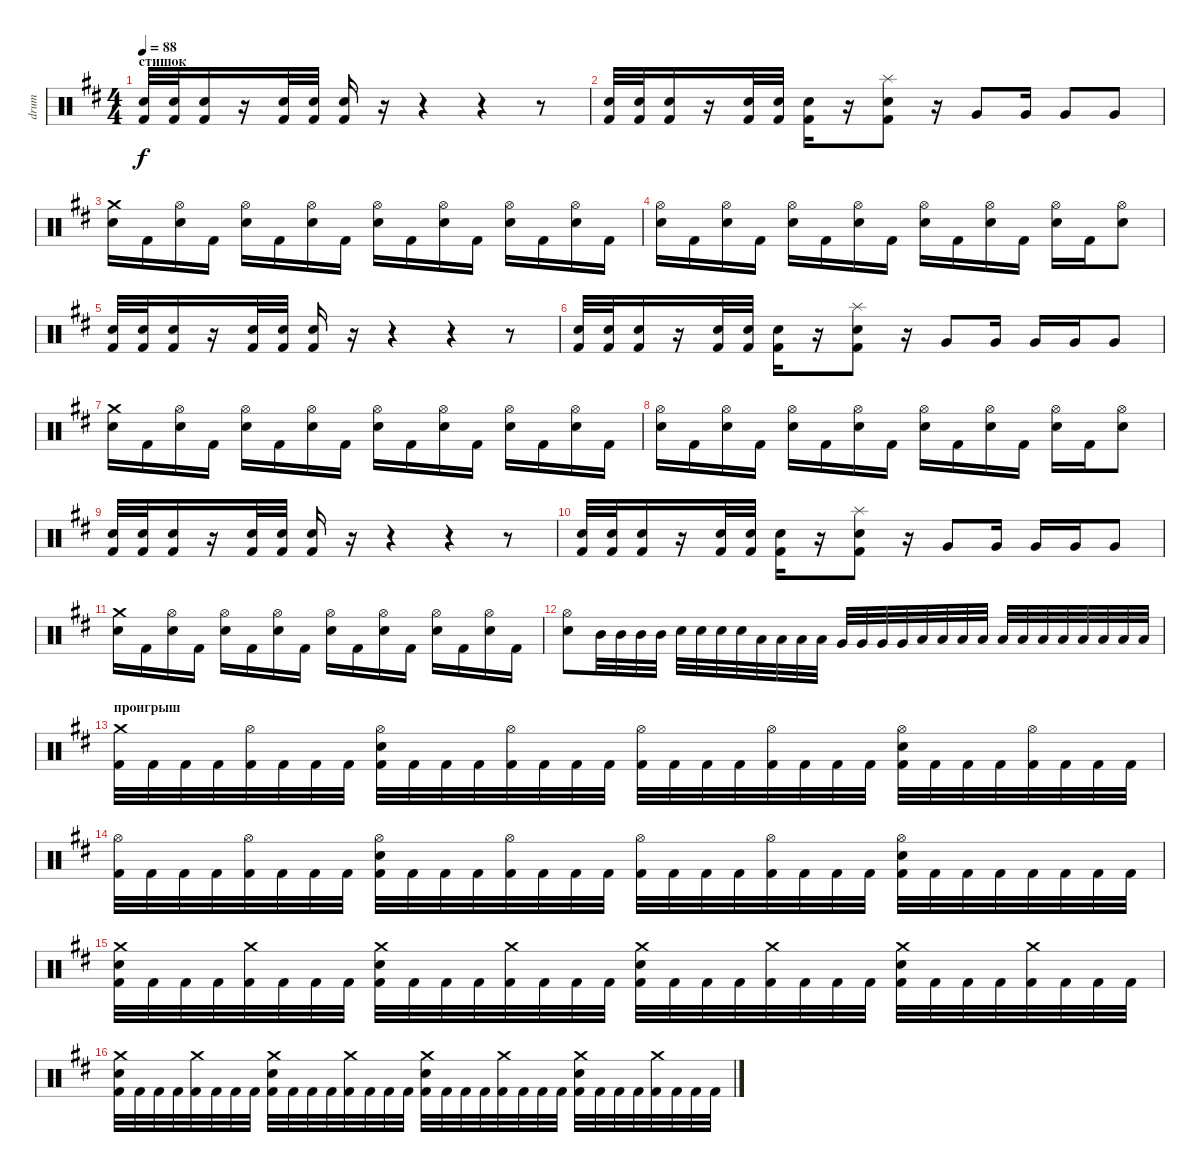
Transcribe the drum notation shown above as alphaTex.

\track ("drum" "drum") {instrument percussion}
\staff {score}
\articulation defaults
\ts (4 4)
\section ("" "стишок")
\tempo 88
\clef neutral
\ks bminor
("Electric Snare (hit)" "Kick (hit) 2").32{dy f} ("Electric Snare (hit)" "Kick (hit) 2").32 ("Electric Snare (hit)" "Kick (hit) 2").16 r.16 ("Electric Snare (hit)" "Kick (hit) 2").32 ("Electric Snare (hit)" "Kick (hit) 2").32 ("Electric Snare (hit)" "Kick (hit) 2").16 r.16 r.4 r.4 r.8 |
("Electric Snare (hit)" "Kick (hit) 2").32 ("Electric Snare (hit)" "Kick (hit) 2").32 ("Electric Snare (hit)" "Kick (hit) 2").16 r.16 ("Electric Snare (hit)" "Kick (hit) 2").32 ("Electric Snare (hit)" "Kick (hit) 2").32 ("Electric Snare (hit)" "Kick (hit) 2").16 r.16 ("Splash (hit)" "Electric Snare (hit)" "Kick (hit) 2").8 r.16 "Very Low Tom (hit)".8 "Very Low Tom (hit)".16 "Very Low Tom (hit)".8 "Very Low Tom (hit)".8 |
("Crash medium (hit)" "Electric Snare (hit)").16 "Kick (hit) 2".16 ("Hi-Hat (open)" "Electric Snare (hit)").16 "Kick (hit) 2".16 ("Hi-Hat (open)" "Electric Snare (hit)").16 "Kick (hit) 2".16 ("Hi-Hat (open)" "Electric Snare (hit)").16 "Kick (hit) 2".16 ("Hi-Hat (open)" "Electric Snare (hit)").16 "Kick (hit) 2".16 ("Hi-Hat (open)" "Electric Snare (hit)").16 "Kick (hit) 2".16 ("Hi-Hat (open)" "Electric Snare (hit)").16 "Kick (hit) 2".16 ("Hi-Hat (open)" "Electric Snare (hit)").16 "Kick (hit) 2".16 |
("Hi-Hat (open)" "Electric Snare (hit)").16 "Kick (hit) 2".16 ("Hi-Hat (open)" "Electric Snare (hit)").16 "Kick (hit) 2".16 ("Hi-Hat (open)" "Electric Snare (hit)").16 "Kick (hit) 2".16 ("Hi-Hat (open)" "Electric Snare (hit)").16 "Kick (hit) 2".16 ("Hi-Hat (open)" "Electric Snare (hit)").16 "Kick (hit) 2".16 ("Hi-Hat (open)" "Electric Snare (hit)").16 "Kick (hit) 2".16 ("Hi-Hat (open)" "Electric Snare (hit)").16 "Kick (hit) 2".16 ("Hi-Hat (open)" "Electric Snare (hit)").8 |
("Electric Snare (hit)" "Kick (hit) 2").32 ("Electric Snare (hit)" "Kick (hit) 2").32 ("Electric Snare (hit)" "Kick (hit) 2").16 r.16 ("Electric Snare (hit)" "Kick (hit) 2").32 ("Electric Snare (hit)" "Kick (hit) 2").32 ("Electric Snare (hit)" "Kick (hit) 2").16 r.16 r.4 r.4 r.8 |
("Electric Snare (hit)" "Kick (hit) 2").32 ("Electric Snare (hit)" "Kick (hit) 2").32 ("Electric Snare (hit)" "Kick (hit) 2").16 r.16 ("Electric Snare (hit)" "Kick (hit) 2").32 ("Electric Snare (hit)" "Kick (hit) 2").32 ("Electric Snare (hit)" "Kick (hit) 2").16 r.16 ("Splash (hit)" "Electric Snare (hit)" "Kick (hit) 2").8 r.16 "Very Low Tom (hit)".8 "Very Low Tom (hit)".16 "Very Low Tom (hit)".16 "Very Low Tom (hit)".16 "Very Low Tom (hit)".8 |
("Crash medium (hit)" "Electric Snare (hit)").16 "Kick (hit) 2".16 ("Hi-Hat (open)" "Electric Snare (hit)").16 "Kick (hit) 2".16 ("Hi-Hat (open)" "Electric Snare (hit)").16 "Kick (hit) 2".16 ("Hi-Hat (open)" "Electric Snare (hit)").16 "Kick (hit) 2".16 ("Hi-Hat (open)" "Electric Snare (hit)").16 "Kick (hit) 2".16 ("Hi-Hat (open)" "Electric Snare (hit)").16 "Kick (hit) 2".16 ("Hi-Hat (open)" "Electric Snare (hit)").16 "Kick (hit) 2".16 ("Hi-Hat (open)" "Electric Snare (hit)").16 "Kick (hit) 2".16 |
("Hi-Hat (open)" "Electric Snare (hit)").16 "Kick (hit) 2".16 ("Hi-Hat (open)" "Electric Snare (hit)").16 "Kick (hit) 2".16 ("Hi-Hat (open)" "Electric Snare (hit)").16 "Kick (hit) 2".16 ("Hi-Hat (open)" "Electric Snare (hit)").16 "Kick (hit) 2".16 ("Hi-Hat (open)" "Electric Snare (hit)").16 "Kick (hit) 2".16 ("Hi-Hat (open)" "Electric Snare (hit)").16 "Kick (hit) 2".16 ("Hi-Hat (open)" "Electric Snare (hit)").16 "Kick (hit) 2".16 ("Hi-Hat (open)" "Electric Snare (hit)").8 |
("Electric Snare (hit)" "Kick (hit) 2").32 ("Electric Snare (hit)" "Kick (hit) 2").32 ("Electric Snare (hit)" "Kick (hit) 2").16 r.16 ("Electric Snare (hit)" "Kick (hit) 2").32 ("Electric Snare (hit)" "Kick (hit) 2").32 ("Electric Snare (hit)" "Kick (hit) 2").16 r.16 r.4 r.4 r.8 |
("Electric Snare (hit)" "Kick (hit) 2").32 ("Electric Snare (hit)" "Kick (hit) 2").32 ("Electric Snare (hit)" "Kick (hit) 2").16 r.16 ("Electric Snare (hit)" "Kick (hit) 2").32 ("Electric Snare (hit)" "Kick (hit) 2").32 ("Electric Snare (hit)" "Kick (hit) 2").16 r.16 ("Splash (hit)" "Electric Snare (hit)" "Kick (hit) 2").8 r.16 "Very Low Tom (hit)".8 "Very Low Tom (hit)".16 "Very Low Tom (hit)".16 "Very Low Tom (hit)".16 "Very Low Tom (hit)".8 |
("Crash medium (hit)" "Electric Snare (hit)").16 "Kick (hit) 2".16 ("Hi-Hat (open)" "Electric Snare (hit)").16 "Kick (hit) 2".16 ("Hi-Hat (open)" "Electric Snare (hit)").16 "Kick (hit) 2".16 ("Hi-Hat (open)" "Electric Snare (hit)").16 "Kick (hit) 2".16 ("Hi-Hat (open)" "Electric Snare (hit)").16 "Kick (hit) 2".16 ("Hi-Hat (open)" "Electric Snare (hit)").16 "Kick (hit) 2".16 ("Hi-Hat (open)" "Electric Snare (hit)").16 "Kick (hit) 2".16 ("Hi-Hat (open)" "Electric Snare (hit)").16 "Kick (hit) 2".16 |
("Hi-Hat (open)" "Electric Snare (hit)").8 "Mid Tom (hit)".32 "Mid Tom (hit)".32 "Mid Tom (hit)".32 "Mid Tom (hit)".32 "Electric Snare (hit)".32 "Electric Snare (hit)".32 "Electric Snare (hit)".32 "Electric Snare (hit)".32 "Low Tom (hit)".32 "Low Tom (hit)".32 "Low Tom (hit)".32 "Low Tom (hit)".32 "Very Low Tom (hit)".32 "Very Low Tom (hit)".32 "Very Low Tom (hit)".32 "Very Low Tom (hit)".32 "Low Floor Tom (hit)".32 "Low Floor Tom (hit)".32 "Low Floor Tom (hit)".32 "Low Floor Tom (hit)".32 "Low Floor Tom (hit)".32 "Low Floor Tom (hit)".32 "Low Floor Tom (hit)".32 "Low Floor Tom (hit)".32 "Low Floor Tom (hit)".32 "Low Floor Tom (hit)".32 "Low Floor Tom (hit)".32 "Low Floor Tom (hit)".32 |
\section ("" "проигрыш")
("Crash medium (hit)" "Kick (hit) 2").32 "Kick (hit) 2".32 "Kick (hit) 2".32 "Kick (hit) 2".32 ("Hi-Hat (open)" "Kick (hit) 2").32 "Kick (hit) 2".32 "Kick (hit) 2".32 "Kick (hit) 2".32 ("Hi-Hat (open)" "Electric Snare (hit)" "Kick (hit) 2").32 "Kick (hit) 2".32 "Kick (hit) 2".32 "Kick (hit) 2".32 ("Hi-Hat (open)" "Kick (hit) 2").32 "Kick (hit) 2".32 "Kick (hit) 2".32 "Kick (hit) 2".32 ("Hi-Hat (open)" "Kick (hit) 2").32 "Kick (hit) 2".32 "Kick (hit) 2".32 "Kick (hit) 2".32 ("Hi-Hat (open)" "Kick (hit) 2").32 "Kick (hit) 2".32 "Kick (hit) 2".32 "Kick (hit) 2".32 ("Hi-Hat (open)" "Electric Snare (hit)" "Kick (hit) 2").32 "Kick (hit) 2".32 "Kick (hit) 2".32 "Kick (hit) 2".32 ("Hi-Hat (open)" "Kick (hit) 2").32 "Kick (hit) 2".32 "Kick (hit) 2".32 "Kick (hit) 2".32 |
("Hi-Hat (open)" "Kick (hit) 2").32 "Kick (hit) 2".32 "Kick (hit) 2".32 "Kick (hit) 2".32 ("Hi-Hat (open)" "Kick (hit) 2").32 "Kick (hit) 2".32 "Kick (hit) 2".32 "Kick (hit) 2".32 ("Hi-Hat (open)" "Electric Snare (hit)" "Kick (hit) 2").32 "Kick (hit) 2".32 "Kick (hit) 2".32 "Kick (hit) 2".32 ("Hi-Hat (open)" "Kick (hit) 2").32 "Kick (hit) 2".32 "Kick (hit) 2".32 "Kick (hit) 2".32 ("Hi-Hat (open)" "Kick (hit) 2").32 "Kick (hit) 2".32 "Kick (hit) 2".32 "Kick (hit) 2".32 ("Hi-Hat (open)" "Kick (hit) 2").32 "Kick (hit) 2".32 "Kick (hit) 2".32 "Kick (hit) 2".32 ("Hi-Hat (open)" "Electric Snare (hit)" "Kick (hit) 2").32 "Kick (hit) 2".32 "Kick (hit) 2".32 "Kick (hit) 2".32 "Kick (hit) 2".32 "Kick (hit) 2".32 "Kick (hit) 2".32 "Kick (hit) 2".32 |
("Crash medium (hit)" "Electric Snare (hit)" "Kick (hit) 2").32 "Kick (hit) 2".32 "Kick (hit) 2".32 "Kick (hit) 2".32 ("Crash medium (hit)" "Kick (hit) 2").32 "Kick (hit) 2".32 "Kick (hit) 2".32 "Kick (hit) 2".32 ("Crash medium (hit)" "Electric Snare (hit)" "Kick (hit) 2").32 "Kick (hit) 2".32 "Kick (hit) 2".32 "Kick (hit) 2".32 ("Crash medium (hit)" "Kick (hit) 2").32 "Kick (hit) 2".32 "Kick (hit) 2".32 "Kick (hit) 2".32 ("Crash medium (hit)" "Electric Snare (hit)" "Kick (hit) 2").32 "Kick (hit) 2".32 "Kick (hit) 2".32 "Kick (hit) 2".32 ("Crash medium (hit)" "Kick (hit) 2").32 "Kick (hit) 2".32 "Kick (hit) 2".32 "Kick (hit) 2".32 ("Crash medium (hit)" "Electric Snare (hit)" "Kick (hit) 2").32 "Kick (hit) 2".32 "Kick (hit) 2".32 "Kick (hit) 2".32 ("Crash medium (hit)" "Kick (hit) 2").32 "Kick (hit) 2".32 "Kick (hit) 2".32 "Kick (hit) 2".32 |
("Crash medium (hit)" "Electric Snare (hit)" "Kick (hit) 2").32 "Kick (hit) 2".32 "Kick (hit) 2".32 "Kick (hit) 2".32 ("Crash medium (hit)" "Kick (hit) 2").32 "Kick (hit) 2".32 "Kick (hit) 2".32 "Kick (hit) 2".32 ("Crash medium (hit)" "Electric Snare (hit)" "Kick (hit) 2").32 "Kick (hit) 2".32 "Kick (hit) 2".32 "Kick (hit) 2".32 ("Crash medium (hit)" "Kick (hit) 2").32 "Kick (hit) 2".32 "Kick (hit) 2".32 "Kick (hit) 2".32 ("Crash medium (hit)" "Electric Snare (hit)" "Kick (hit) 2").32 "Kick (hit) 2".32 "Kick (hit) 2".32 "Kick (hit) 2".32 ("Crash medium (hit)" "Kick (hit) 2").32 "Kick (hit) 2".32 "Kick (hit) 2".32 "Kick (hit) 2".32 ("Crash medium (hit)" "Electric Snare (hit)" "Kick (hit) 2").32 "Kick (hit) 2".32 "Kick (hit) 2".32 "Kick (hit) 2".32 ("Crash medium (hit)" "Kick (hit) 2").32 "Kick (hit) 2".32 "Kick (hit) 2".32 "Kick (hit) 2".32
